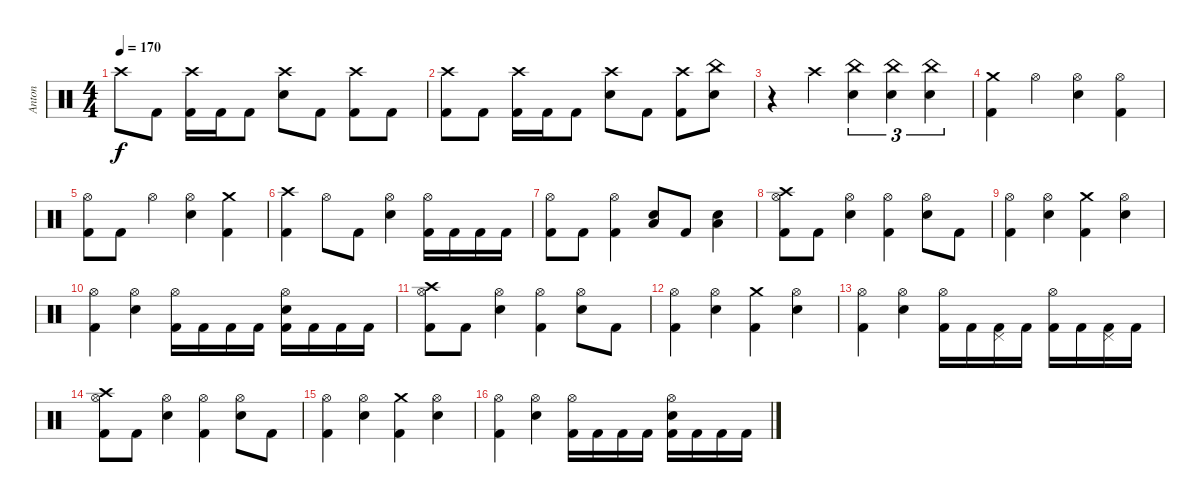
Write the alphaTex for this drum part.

\track ("Anton" "Anton") {instrument percussion}
\staff
\articulation defaults
\ts (4 4)
\tempo 170
\clef neutral
\ks c "Crash high (hit)".8{dy f} "Kick (hit) 2".8
("Crash high (hit)" "Kick (hit) 2").16 "Kick (hit) 2".16 "Kick (hit) 2".8 ("Crash high (hit)" "Electric Snare (hit)").8 "Kick (hit) 2".8 ("Crash high (hit)" "Kick (hit) 2").8 "Kick (hit) 2".8 |
("Crash high (hit)" "Kick (hit) 2").8 "Kick (hit) 2".8 ("Crash high (hit)" "Kick (hit) 2").16 "Kick (hit) 2".16 "Kick (hit) 2".8 ("Crash high (hit)" "Electric Snare (hit)").8 "Kick (hit) 2".8 ("Crash high (hit)" "Kick (hit) 2").8 ("China (hit)" "Electric Snare (hit)").8 |
r.4 "Crash high (hit)".4 ("China (hit)" "Electric Snare (hit)").4{tu (3 2)} ("China (hit)" "Electric Snare (hit)").4{tu (3 2)} ("China (hit)" "Electric Snare (hit)").4{tu (3 2)} |
("Crash medium (hit)" "Kick (hit) 2").4 "Hi-Hat (open)".4 ("Hi-Hat (open)" "Electric Snare (hit)").4 ("Hi-Hat (open)" "Kick (hit) 2").4 |
("Hi-Hat (open)" "Kick (hit) 2").8 "Kick (hit) 2".8 "Hi-Hat (open)".4 ("Hi-Hat (open)" "Electric Snare (hit)").4 ("Crash medium (hit)" "Kick (hit) 2").4 |
("Crash high (hit)" "Kick (hit) 2").4 "Hi-Hat (open)".8 "Kick (hit) 2".8 ("Hi-Hat (open)" "Electric Snare (hit)").4 ("Hi-Hat (open)" "Kick (hit) 2").16 "Kick (hit) 2".16 "Kick (hit) 2".16 "Kick (hit) 2".16 |
("Hi-Hat (open)" "Kick (hit) 2").8 "Kick (hit) 2".8 ("Hi-Hat (open)" "Kick (hit) 2").4 ("Electric Snare (hit)" "Low Floor Tom (hit)").8 "Kick (hit) 2".8 ("Electric Snare (hit)" "Low Floor Tom (hit)").4 |
("Crash high (hit)" "Hi-Hat (open)" "Kick (hit) 2").8 "Kick (hit) 2".8 ("Hi-Hat (open)" "Electric Snare (hit)").4 ("Hi-Hat (open)" "Kick (hit) 2").4 ("Hi-Hat (open)" "Electric Snare (hit)").8 "Kick (hit) 2".8 |
("Hi-Hat (open)" "Kick (hit) 2").4 ("Hi-Hat (open)" "Electric Snare (hit)").4 ("Crash medium (hit)" "Kick (hit) 2").4 ("Hi-Hat (open)" "Electric Snare (hit)").4 |
("Hi-Hat (open)" "Kick (hit) 2").4 ("Hi-Hat (open)" "Electric Snare (hit)").4 ("Hi-Hat (open)" "Kick (hit) 2").16 "Kick (hit) 2".16 "Kick (hit) 2".16 "Kick (hit) 2".16 ("Hi-Hat (open)" "Electric Snare (hit)" "Kick (hit) 2").16 "Kick (hit) 2".16 "Kick (hit) 2".16 "Kick (hit) 2".16 |
("Crash high (hit)" "Hi-Hat (open)" "Kick (hit) 2").8 "Kick (hit) 2".8 ("Hi-Hat (open)" "Electric Snare (hit)").4 ("Hi-Hat (open)" "Kick (hit) 2").4 ("Hi-Hat (open)" "Electric Snare (hit)").8 "Kick (hit) 2".8 |
("Hi-Hat (open)" "Kick (hit) 2").4 ("Hi-Hat (open)" "Electric Snare (hit)").4 ("Crash medium (hit)" "Kick (hit) 2").4 ("Hi-Hat (open)" "Electric Snare (hit)").4 |
("Hi-Hat (open)" "Kick (hit) 2").4 ("Hi-Hat (open)" "Electric Snare (hit)").4 ("Hi-Hat (open)" "Kick (hit) 2").16 "Kick (hit) 2".16 ("Pedal Hi-Hat (hit)" "Kick (hit) 2").16 "Kick (hit) 2".16 ("Hi-Hat (open)" "Kick (hit) 2").16 "Kick (hit) 2".16 ("Pedal Hi-Hat (hit)" "Kick (hit) 2").16 "Kick (hit) 2".16 |
("Crash high (hit)" "Hi-Hat (open)" "Kick (hit) 2").8 "Kick (hit) 2".8 ("Hi-Hat (open)" "Electric Snare (hit)").4 ("Hi-Hat (open)" "Kick (hit) 2").4 ("Hi-Hat (open)" "Electric Snare (hit)").8 "Kick (hit) 2".8 |
("Hi-Hat (open)" "Kick (hit) 2").4 ("Hi-Hat (open)" "Electric Snare (hit)").4 ("Crash medium (hit)" "Kick (hit) 2").4 ("Hi-Hat (open)" "Electric Snare (hit)").4 |
("Hi-Hat (open)" "Kick (hit) 2").4 ("Hi-Hat (open)" "Electric Snare (hit)").4 ("Hi-Hat (open)" "Kick (hit) 2").16 "Kick (hit) 2".16 "Kick (hit) 2".16 "Kick (hit) 2".16 ("Hi-Hat (open)" "Electric Snare (hit)" "Kick (hit) 2").16 "Kick (hit) 2".16 "Kick (hit) 2".16 "Kick (hit) 2".16
